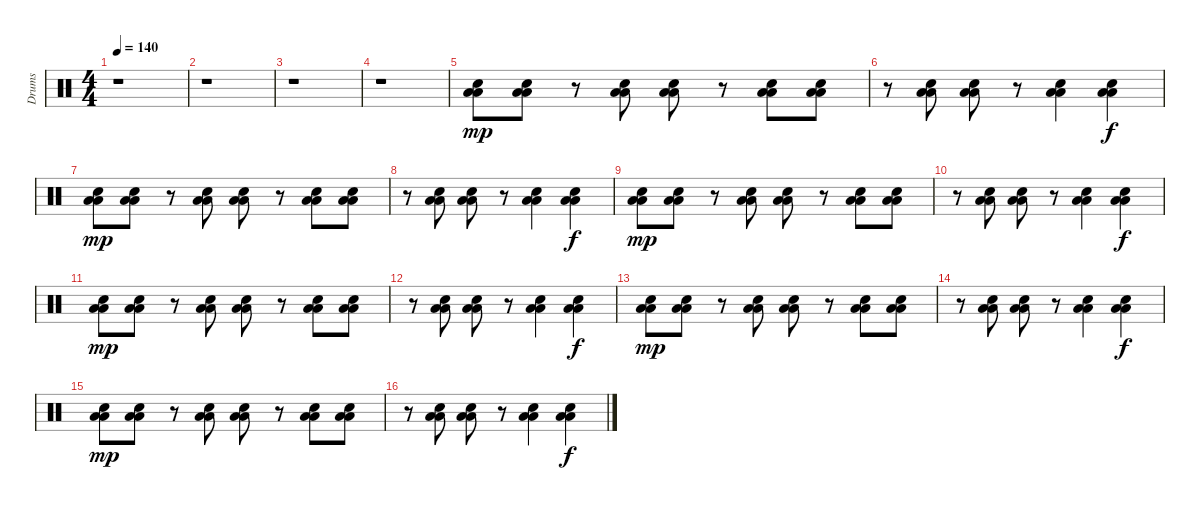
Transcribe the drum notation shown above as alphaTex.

\track ("Drums" "Drums") {instrument percussion}
\staff {score}
\articulation defaults
\ts (4 4)
\tempo 140
\clef neutral
\ks c
r.1{dy mp} |
r.1 |
r.1 |
r.1 |
("Electric Snare (hit)" "Low Tom (hit)" "Low Floor Tom (hit)").8 ("Electric Snare (hit)" "Low Tom (hit)" "Low Floor Tom (hit)").8 r.8 ("Electric Snare (hit)" "Low Tom (hit)" "Low Floor Tom (hit)").8 ("Electric Snare (hit)" "Low Tom (hit)" "Low Floor Tom (hit)").8 r.8 ("Electric Snare (hit)" "Low Tom (hit)" "Low Floor Tom (hit)").8 ("Electric Snare (hit)" "Low Tom (hit)" "Low Floor Tom (hit)").8 |
r.8 ("Electric Snare (hit)" "Low Tom (hit)" "Low Floor Tom (hit)").8 ("Electric Snare (hit)" "Low Tom (hit)" "Low Floor Tom (hit)").8 r.8 ("Electric Snare (hit)" "Low Tom (hit)" "Low Floor Tom (hit)").4 ("Electric Snare (hit)" "Low Tom (hit)" "Low Floor Tom (hit)").4{dy f} |
("Electric Snare (hit)" "Low Tom (hit)" "Low Floor Tom (hit)").8{dy mp} ("Electric Snare (hit)" "Low Tom (hit)" "Low Floor Tom (hit)").8 r.8 ("Electric Snare (hit)" "Low Tom (hit)" "Low Floor Tom (hit)").8 ("Electric Snare (hit)" "Low Tom (hit)" "Low Floor Tom (hit)").8 r.8 ("Electric Snare (hit)" "Low Tom (hit)" "Low Floor Tom (hit)").8 ("Electric Snare (hit)" "Low Tom (hit)" "Low Floor Tom (hit)").8 |
r.8 ("Electric Snare (hit)" "Low Tom (hit)" "Low Floor Tom (hit)").8 ("Electric Snare (hit)" "Low Tom (hit)" "Low Floor Tom (hit)").8 r.8 ("Electric Snare (hit)" "Low Tom (hit)" "Low Floor Tom (hit)").4 ("Electric Snare (hit)" "Low Tom (hit)" "Low Floor Tom (hit)").4{dy f} |
("Electric Snare (hit)" "Low Tom (hit)" "Low Floor Tom (hit)").8{dy mp} ("Electric Snare (hit)" "Low Tom (hit)" "Low Floor Tom (hit)").8 r.8 ("Electric Snare (hit)" "Low Tom (hit)" "Low Floor Tom (hit)").8 ("Electric Snare (hit)" "Low Tom (hit)" "Low Floor Tom (hit)").8 r.8 ("Electric Snare (hit)" "Low Tom (hit)" "Low Floor Tom (hit)").8 ("Electric Snare (hit)" "Low Tom (hit)" "Low Floor Tom (hit)").8 |
r.8 ("Electric Snare (hit)" "Low Tom (hit)" "Low Floor Tom (hit)").8 ("Electric Snare (hit)" "Low Tom (hit)" "Low Floor Tom (hit)").8 r.8 ("Electric Snare (hit)" "Low Tom (hit)" "Low Floor Tom (hit)").4 ("Electric Snare (hit)" "Low Tom (hit)" "Low Floor Tom (hit)").4{dy f} |
("Electric Snare (hit)" "Low Tom (hit)" "Low Floor Tom (hit)").8{dy mp} ("Electric Snare (hit)" "Low Tom (hit)" "Low Floor Tom (hit)").8 r.8 ("Electric Snare (hit)" "Low Tom (hit)" "Low Floor Tom (hit)").8 ("Electric Snare (hit)" "Low Tom (hit)" "Low Floor Tom (hit)").8 r.8 ("Electric Snare (hit)" "Low Tom (hit)" "Low Floor Tom (hit)").8 ("Electric Snare (hit)" "Low Tom (hit)" "Low Floor Tom (hit)").8 |
r.8 ("Electric Snare (hit)" "Low Tom (hit)" "Low Floor Tom (hit)").8 ("Electric Snare (hit)" "Low Tom (hit)" "Low Floor Tom (hit)").8 r.8 ("Electric Snare (hit)" "Low Tom (hit)" "Low Floor Tom (hit)").4 ("Electric Snare (hit)" "Low Tom (hit)" "Low Floor Tom (hit)").4{dy f} |
("Electric Snare (hit)" "Low Tom (hit)" "Low Floor Tom (hit)").8{dy mp} ("Electric Snare (hit)" "Low Tom (hit)" "Low Floor Tom (hit)").8 r.8 ("Electric Snare (hit)" "Low Tom (hit)" "Low Floor Tom (hit)").8 ("Electric Snare (hit)" "Low Tom (hit)" "Low Floor Tom (hit)").8 r.8 ("Electric Snare (hit)" "Low Tom (hit)" "Low Floor Tom (hit)").8 ("Electric Snare (hit)" "Low Tom (hit)" "Low Floor Tom (hit)").8 |
r.8 ("Electric Snare (hit)" "Low Tom (hit)" "Low Floor Tom (hit)").8 ("Electric Snare (hit)" "Low Tom (hit)" "Low Floor Tom (hit)").8 r.8 ("Electric Snare (hit)" "Low Tom (hit)" "Low Floor Tom (hit)").4 ("Electric Snare (hit)" "Low Tom (hit)" "Low Floor Tom (hit)").4{dy f} |
("Electric Snare (hit)" "Low Tom (hit)" "Low Floor Tom (hit)").8{dy mp} ("Electric Snare (hit)" "Low Tom (hit)" "Low Floor Tom (hit)").8 r.8 ("Electric Snare (hit)" "Low Tom (hit)" "Low Floor Tom (hit)").8 ("Electric Snare (hit)" "Low Tom (hit)" "Low Floor Tom (hit)").8 r.8 ("Electric Snare (hit)" "Low Tom (hit)" "Low Floor Tom (hit)").8 ("Electric Snare (hit)" "Low Tom (hit)" "Low Floor Tom (hit)").8 |
r.8 ("Electric Snare (hit)" "Low Tom (hit)" "Low Floor Tom (hit)").8 ("Electric Snare (hit)" "Low Tom (hit)" "Low Floor Tom (hit)").8 r.8 ("Electric Snare (hit)" "Low Tom (hit)" "Low Floor Tom (hit)").4 ("Electric Snare (hit)" "Low Tom (hit)" "Low Floor Tom (hit)").4{dy f}
